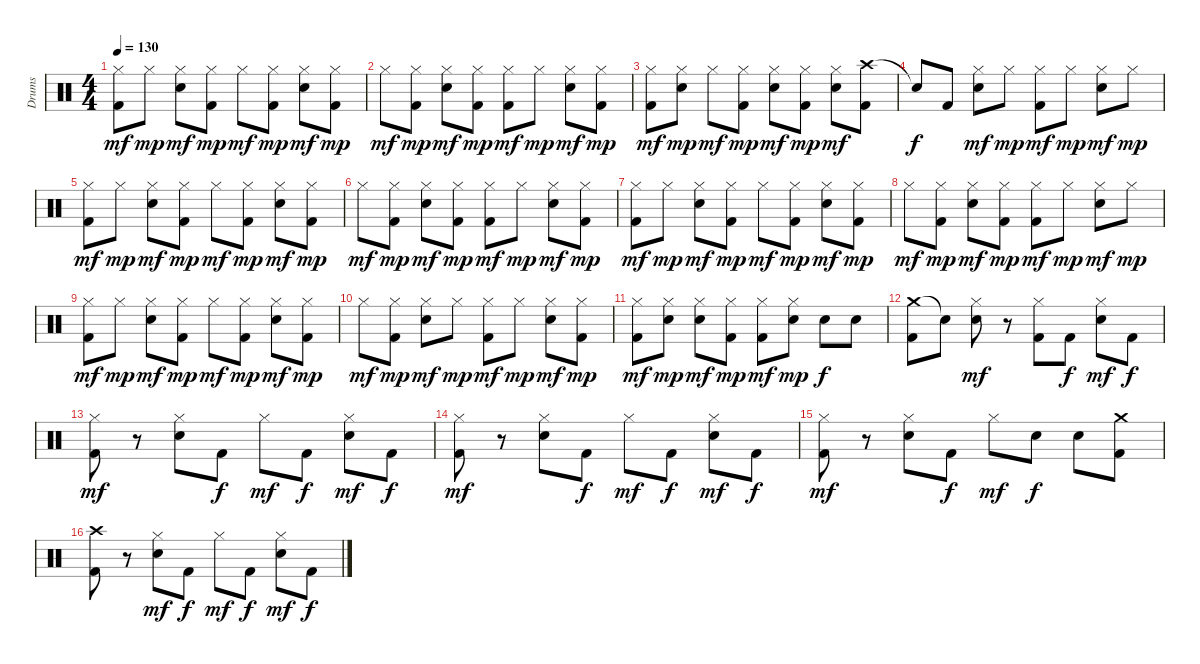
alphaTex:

\track ("Drums" "Drums") {instrument percussion}
\staff {score}
\articulation defaults
\ts (4 4)
\tempo 130
\clef neutral
\ks c
("Hi-Hat (closed)" "Kick (hit) 2").8{dy mf} "Hi-Hat (closed)".8{dy mp} ("Hi-Hat (closed)" "Electric Snare (hit)").8{dy mf} ("Hi-Hat (closed)" "Kick (hit) 2").8{dy mp} "Hi-Hat (closed)".8{dy mf} ("Hi-Hat (closed)" "Kick (hit) 2").8{dy mp} ("Hi-Hat (closed)" "Electric Snare (hit)").8{dy mf} ("Hi-Hat (closed)" "Kick (hit) 2").8{dy mp} |
"Hi-Hat (closed)".8{dy mf} ("Hi-Hat (closed)" "Kick (hit) 2").8{dy mp} ("Hi-Hat (closed)" "Electric Snare (hit)").8{dy mf} ("Hi-Hat (closed)" "Kick (hit) 2").8{dy mp} ("Hi-Hat (closed)" "Kick (hit) 2").8{dy mf} "Hi-Hat (closed)".8{dy mp} ("Hi-Hat (closed)" "Electric Snare (hit)").8{dy mf} ("Hi-Hat (closed)" "Kick (hit) 2").8{dy mp} |
("Hi-Hat (closed)" "Kick (hit) 2").8{dy mf} ("Hi-Hat (closed)" "Electric Snare (hit)").8{dy mp} "Hi-Hat (closed)".8{dy mf} ("Hi-Hat (closed)" "Kick (hit) 2").8{dy mp} ("Hi-Hat (closed)" "Electric Snare (hit)").8{dy mf} ("Hi-Hat (closed)" "Kick (hit) 2").8{dy mp} ("Hi-Hat (closed)" "Electric Snare (hit)").8{dy mf} ("Crash high (hit)" "Kick (hit) 2").8 |
"Snare (hit)"{t}.8{dy f} "Kick (hit) 2".8 ("Hi-Hat (closed)" "Electric Snare (hit)").8{dy mf} "Hi-Hat (closed)".8{dy mp} ("Hi-Hat (closed)" "Kick (hit) 2").8{dy mf} "Hi-Hat (closed)".8{dy mp} ("Hi-Hat (closed)" "Electric Snare (hit)").8{dy mf} "Hi-Hat (closed)".8{dy mp} |
("Hi-Hat (closed)" "Kick (hit) 2").8{dy mf} "Hi-Hat (closed)".8{dy mp} ("Hi-Hat (closed)" "Electric Snare (hit)").8{dy mf} ("Hi-Hat (closed)" "Kick (hit) 2").8{dy mp} "Hi-Hat (closed)".8{dy mf} ("Hi-Hat (closed)" "Kick (hit) 2").8{dy mp} ("Hi-Hat (closed)" "Electric Snare (hit)").8{dy mf} ("Hi-Hat (closed)" "Kick (hit) 2").8{dy mp} |
"Hi-Hat (closed)".8{dy mf} ("Hi-Hat (closed)" "Kick (hit) 2").8{dy mp} ("Hi-Hat (closed)" "Electric Snare (hit)").8{dy mf} ("Hi-Hat (closed)" "Kick (hit) 2").8{dy mp} ("Hi-Hat (closed)" "Kick (hit) 2").8{dy mf} "Hi-Hat (closed)".8{dy mp} ("Hi-Hat (closed)" "Electric Snare (hit)").8{dy mf} ("Hi-Hat (closed)" "Kick (hit) 2").8{dy mp} |
("Hi-Hat (closed)" "Kick (hit) 2").8{dy mf} "Hi-Hat (closed)".8{dy mp} ("Hi-Hat (closed)" "Electric Snare (hit)").8{dy mf} ("Hi-Hat (closed)" "Kick (hit) 2").8{dy mp} "Hi-Hat (closed)".8{dy mf} ("Hi-Hat (closed)" "Kick (hit) 2").8{dy mp} ("Hi-Hat (closed)" "Electric Snare (hit)").8{dy mf} ("Hi-Hat (closed)" "Kick (hit) 2").8{dy mp} |
"Hi-Hat (closed)".8{dy mf} ("Hi-Hat (closed)" "Kick (hit) 2").8{dy mp} ("Hi-Hat (closed)" "Electric Snare (hit)").8{dy mf} ("Hi-Hat (closed)" "Kick (hit) 2").8{dy mp} ("Hi-Hat (closed)" "Kick (hit) 2").8{dy mf} "Hi-Hat (closed)".8{dy mp} ("Hi-Hat (closed)" "Electric Snare (hit)").8{dy mf} "Hi-Hat (closed)".8{dy mp} |
("Hi-Hat (closed)" "Kick (hit) 2").8{dy mf} "Hi-Hat (closed)".8{dy mp} ("Hi-Hat (closed)" "Electric Snare (hit)").8{dy mf} ("Hi-Hat (closed)" "Kick (hit) 2").8{dy mp} "Hi-Hat (closed)".8{dy mf} ("Hi-Hat (closed)" "Kick (hit) 2").8{dy mp} ("Hi-Hat (closed)" "Electric Snare (hit)").8{dy mf} ("Hi-Hat (closed)" "Kick (hit) 2").8{dy mp} |
"Hi-Hat (closed)".8{dy mf} ("Hi-Hat (closed)" "Kick (hit) 2").8{dy mp} ("Hi-Hat (closed)" "Electric Snare (hit)").8{dy mf} "Hi-Hat (closed)".8{dy mp} ("Hi-Hat (closed)" "Kick (hit) 2").8{dy mf} "Hi-Hat (closed)".8{dy mp} ("Hi-Hat (closed)" "Electric Snare (hit)").8{dy mf} ("Hi-Hat (closed)" "Kick (hit) 2").8{dy mp} |
("Hi-Hat (closed)" "Kick (hit) 2").8{dy mf} ("Hi-Hat (closed)" "Electric Snare (hit)").8{dy mp} ("Hi-Hat (closed)" "Electric Snare (hit)").8{dy mf} ("Hi-Hat (closed)" "Kick (hit) 2").8{dy mp} ("Hi-Hat (closed)" "Kick (hit) 2").8{dy mf} ("Hi-Hat (closed)" "Electric Snare (hit)").8{dy mp} "Electric Snare (hit)".8{dy f} "Electric Snare (hit)".8 |
("Crash medium (hit)" "Kick (hit) 2").8 "Snare (hit)"{t}.8 ("Hi-Hat (closed)" "Electric Snare (hit)").8{dy mf} r.8 ("Hi-Hat (closed)" "Kick (hit) 2").8 "Kick (hit) 2".8{dy f} ("Hi-Hat (closed)" "Electric Snare (hit)").8{dy mf} "Kick (hit) 2".8{dy f} |
("Hi-Hat (closed)" "Kick (hit) 2").8{dy mf} r.8 ("Hi-Hat (closed)" "Electric Snare (hit)").8 "Kick (hit) 2".8{dy f} "Hi-Hat (closed)".8{dy mf} "Kick (hit) 2".8{dy f} ("Hi-Hat (closed)" "Electric Snare (hit)").8{dy mf} "Kick (hit) 2".8{dy f} |
("Hi-Hat (closed)" "Kick (hit) 2").8{dy mf} r.8 ("Hi-Hat (closed)" "Electric Snare (hit)").8 "Kick (hit) 2".8{dy f} "Hi-Hat (closed)".8{dy mf} "Kick (hit) 2".8{dy f} ("Hi-Hat (closed)" "Electric Snare (hit)").8{dy mf} "Kick (hit) 2".8{dy f} |
("Hi-Hat (closed)" "Kick (hit) 2").8{dy mf} r.8 ("Hi-Hat (closed)" "Electric Snare (hit)").8 "Kick (hit) 2".8{dy f} "Hi-Hat (closed)".8{dy mf} "Electric Snare (hit)".8{dy f} "Electric Snare (hit)".8 ("Crash medium (hit)" "Kick (hit) 2").8 |
("Crash high (hit)" "Kick (hit) 2").8 r.8 ("Hi-Hat (closed)" "Electric Snare (hit)").8{dy mf} "Kick (hit) 2".8{dy f} "Hi-Hat (closed)".8{dy mf} "Kick (hit) 2".8{dy f} ("Hi-Hat (closed)" "Electric Snare (hit)").8{dy mf} "Kick (hit) 2".8{dy f}
